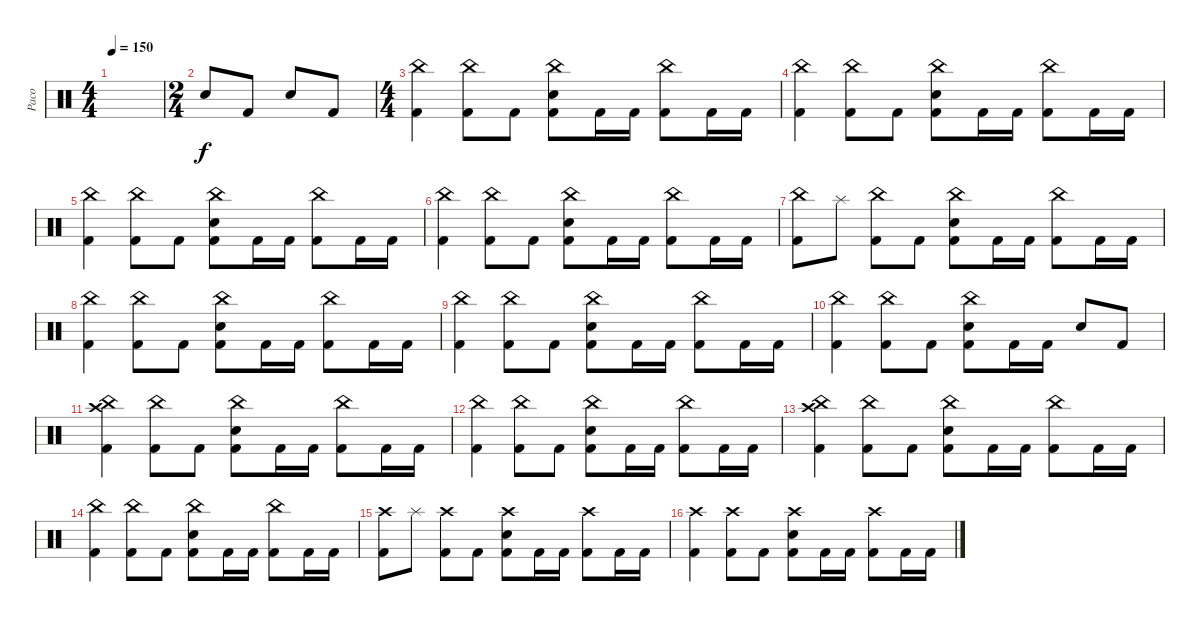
\track ("Paco" "Paco") {instrument percussion}
\staff {score}
\articulation defaults
\ts (4 4)
\tempo 150
\clef neutral
\ks c
|
\ts (2 4)
"Electric Snare (hit)".8{volume 13} "Kick (hit) 2".8 "Electric Snare (hit)".8 "Kick (hit) 2".8 |
\ts (4 4)
("China (hit)" "Kick (hit) 2").4 ("China (hit)" "Kick (hit) 2").8 "Kick (hit) 2".8 ("China (hit)" "Electric Snare (hit)" "Kick (hit) 2").8 "Kick (hit) 2".16 "Kick (hit) 2".16 ("China (hit)" "Kick (hit) 2").8 "Kick (hit) 2".16 "Kick (hit) 2".16 |
("China (hit)" "Kick (hit) 2").4 ("China (hit)" "Kick (hit) 2").8 "Kick (hit) 2".8 ("China (hit)" "Electric Snare (hit)" "Kick (hit) 2").8 "Kick (hit) 2".16 "Kick (hit) 2".16 ("China (hit)" "Kick (hit) 2").8 "Kick (hit) 2".16 "Kick (hit) 2".16 |
("China (hit)" "Kick (hit) 2").4 ("China (hit)" "Kick (hit) 2").8 "Kick (hit) 2".8 ("China (hit)" "Electric Snare (hit)" "Kick (hit) 2").8 "Kick (hit) 2".16 "Kick (hit) 2".16 ("China (hit)" "Kick (hit) 2").8 "Kick (hit) 2".16 "Kick (hit) 2".16 |
("China (hit)" "Kick (hit) 2").4 ("China (hit)" "Kick (hit) 2").8 "Kick (hit) 2".8 ("China (hit)" "Electric Snare (hit)" "Kick (hit) 2").8 "Kick (hit) 2".16 "Kick (hit) 2".16 ("China (hit)" "Kick (hit) 2").8 "Kick (hit) 2".16 "Kick (hit) 2".16 |
("China (hit)" "Kick (hit) 2").8 "Splash (hit)".8 ("China (hit)" "Kick (hit) 2").8 "Kick (hit) 2".8 ("China (hit)" "Electric Snare (hit)" "Kick (hit) 2").8 "Kick (hit) 2".16 "Kick (hit) 2".16 ("China (hit)" "Kick (hit) 2").8 "Kick (hit) 2".16 "Kick (hit) 2".16 |
("China (hit)" "Kick (hit) 2").4 ("China (hit)" "Kick (hit) 2").8 "Kick (hit) 2".8 ("China (hit)" "Electric Snare (hit)" "Kick (hit) 2").8 "Kick (hit) 2".16 "Kick (hit) 2".16 ("China (hit)" "Kick (hit) 2").8 "Kick (hit) 2".16 "Kick (hit) 2".16 |
("China (hit)" "Kick (hit) 2").4 ("China (hit)" "Kick (hit) 2").8 "Kick (hit) 2".8 ("China (hit)" "Electric Snare (hit)" "Kick (hit) 2").8 "Kick (hit) 2".16 "Kick (hit) 2".16 ("China (hit)" "Kick (hit) 2").8 "Kick (hit) 2".16 "Kick (hit) 2".16 |
("China (hit)" "Kick (hit) 2").4 ("China (hit)" "Kick (hit) 2").8 "Kick (hit) 2".8 ("China (hit)" "Electric Snare (hit)" "Kick (hit) 2").8 "Kick (hit) 2".16 "Kick (hit) 2".16 "Electric Snare (hit)".8 "Kick (hit) 2".8 |
("China (hit)" "Crash high (hit)" "Kick (hit) 2").4 ("China (hit)" "Kick (hit) 2").8 "Kick (hit) 2".8 ("China (hit)" "Electric Snare (hit)" "Kick (hit) 2").8 "Kick (hit) 2".16 "Kick (hit) 2".16 ("China (hit)" "Kick (hit) 2").8 "Kick (hit) 2".16 "Kick (hit) 2".16 |
("China (hit)" "Kick (hit) 2").4 ("China (hit)" "Kick (hit) 2").8 "Kick (hit) 2".8 ("China (hit)" "Electric Snare (hit)" "Kick (hit) 2").8 "Kick (hit) 2".16 "Kick (hit) 2".16 ("China (hit)" "Kick (hit) 2").8 "Kick (hit) 2".16 "Kick (hit) 2".16 |
("China (hit)" "Crash high (hit)" "Kick (hit) 2").4 ("China (hit)" "Kick (hit) 2").8 "Kick (hit) 2".8 ("China (hit)" "Electric Snare (hit)" "Kick (hit) 2").8 "Kick (hit) 2".16 "Kick (hit) 2".16 ("China (hit)" "Kick (hit) 2").8 "Kick (hit) 2".16 "Kick (hit) 2".16 |
("China (hit)" "Kick (hit) 2").4 ("China (hit)" "Kick (hit) 2").8 "Kick (hit) 2".8 ("China (hit)" "Electric Snare (hit)" "Kick (hit) 2").8 "Kick (hit) 2".16 "Kick (hit) 2".16 ("China (hit)" "Kick (hit) 2").8 "Kick (hit) 2".16 "Kick (hit) 2".16 |
("Crash high (hit)" "Kick (hit) 2").8 "Splash (hit)".8 ("Crash high (hit)" "Kick (hit) 2").8 "Kick (hit) 2".8 ("Crash high (hit)" "Electric Snare (hit)" "Kick (hit) 2").8 "Kick (hit) 2".16 "Kick (hit) 2".16 ("Crash high (hit)" "Kick (hit) 2").8 "Kick (hit) 2".16 "Kick (hit) 2".16 |
("Crash high (hit)" "Kick (hit) 2").4 ("Crash high (hit)" "Kick (hit) 2").8 "Kick (hit) 2".8 ("Crash high (hit)" "Electric Snare (hit)" "Kick (hit) 2").8 "Kick (hit) 2".16 "Kick (hit) 2".16 ("Crash high (hit)" "Kick (hit) 2").8 "Kick (hit) 2".16 "Kick (hit) 2".16
